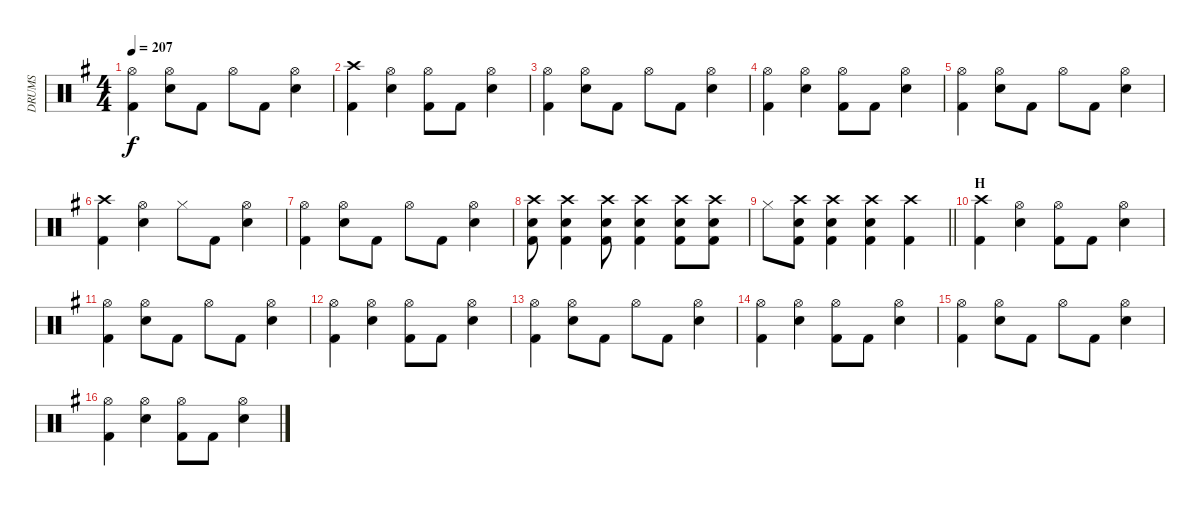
\track ("DRUMS" "DRUMS") {instrument percussion}
\staff {score}
\articulation defaults
\ts (4 4)
\tempo 207
\clef neutral
\ks eminor
("Hi-Hat (open)" "Kick (hit) 2").4{dy f} ("Hi-Hat (open)" "Snare (hit) 2").8 "Kick (hit) 2".8 "Hi-Hat (open)".8 "Kick (hit) 2".8 ("Hi-Hat (open)" "Snare (hit) 2").4 |
("Crash high (hit)" "Kick (hit) 2").4 ("Hi-Hat (open)" "Snare (hit) 2").4 ("Hi-Hat (open)" "Kick (hit) 2").8 "Kick (hit) 2".8 ("Hi-Hat (open)" "Snare (hit) 2").4 |
("Hi-Hat (open)" "Kick (hit) 2").4 ("Hi-Hat (open)" "Snare (hit) 2").8 "Kick (hit) 2".8 "Hi-Hat (open)".8 "Kick (hit) 2".8 ("Hi-Hat (open)" "Snare (hit) 2").4 |
("Hi-Hat (open)" "Kick (hit) 2").4 ("Hi-Hat (open)" "Snare (hit) 2").4 ("Hi-Hat (open)" "Kick (hit) 2").8 "Kick (hit) 2".8 ("Hi-Hat (open)" "Snare (hit) 2").4 |
("Hi-Hat (open)" "Kick (hit) 2").4 ("Hi-Hat (open)" "Snare (hit) 2").8 "Kick (hit) 2".8 "Hi-Hat (open)".8 "Kick (hit) 2".8 ("Hi-Hat (open)" "Snare (hit) 2").4 |
("Crash high (hit)" "Kick (hit) 2").4 ("Hi-Hat (open)" "Snare (hit) 2").4 "Hi-Hat (closed)".8 "Kick (hit) 2".8 ("Hi-Hat (open)" "Snare (hit) 2").4 |
("Hi-Hat (open)" "Kick (hit) 2").4 ("Hi-Hat (open)" "Snare (hit) 2").8 "Kick (hit) 2".8 "Hi-Hat (open)".8 "Kick (hit) 2".8 ("Hi-Hat (open)" "Snare (hit) 2").4 |
("Crash high (hit)" "Snare (hit) 2" "Kick (hit) 2").8 ("Crash high (hit)" "Snare (hit) 2" "Kick (hit) 2").4 ("Crash high (hit)" "Snare (hit) 2" "Kick (hit) 2").8 ("Crash high (hit)" "Snare (hit) 2" "Kick (hit) 2").4 ("Crash high (hit)" "Snare (hit) 2" "Kick (hit) 2").8 ("Crash high (hit)" "Snare (hit) 2" "Kick (hit) 2").8 |
\barLineRight lightlight "Hi-Hat (closed)".8
("Crash high (hit)" "Snare (hit) 2" "Kick (hit) 2").8 ("Crash high (hit)" "Snare (hit) 2" "Kick (hit) 2").4 ("Crash high (hit)" "Snare (hit) 2" "Kick (hit) 2").4 ("Crash high (hit)" "Kick (hit) 2").4 |
\section ("" "H")
("Crash high (hit)" "Kick (hit) 2").4 ("Hi-Hat (open)" "Snare (hit) 2").4 ("Hi-Hat (open)" "Kick (hit) 2").8 "Kick (hit) 2".8 ("Hi-Hat (open)" "Snare (hit) 2").4 |
("Hi-Hat (open)" "Kick (hit) 2").4 ("Hi-Hat (open)" "Snare (hit) 2").8 "Kick (hit) 2".8 "Hi-Hat (open)".8 "Kick (hit) 2".8 ("Hi-Hat (open)" "Snare (hit) 2").4 |
("Hi-Hat (open)" "Kick (hit) 2").4 ("Hi-Hat (open)" "Snare (hit) 2").4 ("Hi-Hat (open)" "Kick (hit) 2").8 "Kick (hit) 2".8 ("Hi-Hat (open)" "Snare (hit) 2").4 |
("Hi-Hat (open)" "Kick (hit) 2").4 ("Hi-Hat (open)" "Snare (hit) 2").8 "Kick (hit) 2".8 "Hi-Hat (open)".8 "Kick (hit) 2".8 ("Hi-Hat (open)" "Snare (hit) 2").4 |
("Hi-Hat (open)" "Kick (hit) 2").4 ("Hi-Hat (open)" "Snare (hit) 2").4 ("Hi-Hat (open)" "Kick (hit) 2").8 "Kick (hit) 2".8 ("Hi-Hat (open)" "Snare (hit) 2").4 |
("Hi-Hat (open)" "Kick (hit) 2").4 ("Hi-Hat (open)" "Snare (hit) 2").8 "Kick (hit) 2".8 "Hi-Hat (open)".8 "Kick (hit) 2".8 ("Hi-Hat (open)" "Snare (hit) 2").4 |
("Hi-Hat (open)" "Kick (hit) 2").4 ("Hi-Hat (open)" "Snare (hit) 2").4 ("Hi-Hat (open)" "Kick (hit) 2").8 "Kick (hit) 2".8 ("Hi-Hat (open)" "Snare (hit) 2").4
